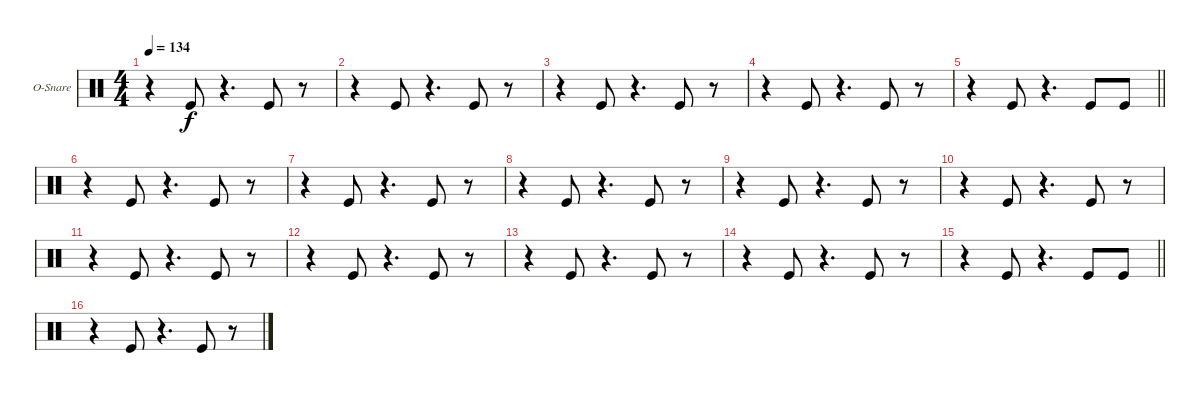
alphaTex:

\bracketExtendMode groupsimilarinstruments
\firstSystemTrackNameOrientation horizontal
\otherSystemsTrackNameOrientation horizontal
\track ("Open Snare" "O-Snare") {instrument percussion}
\staff {score}
\articulation defaults
\ts (4 4)
\scale
0.245232
\tempo 134
\accidentals auto
\clef neutral
\ottava regular
\simile none
\scale
0.25
\ks c
r.4{dy f} "Kick (hit)".8 r.4{d} "Kick (hit)".8 r.8 |
\scale
0.254768
\scale
0.25 r.4 "Kick (hit)".8 r.4{d} "Kick (hit)".8 r.8 |
\scale
0.245232
\scale
0.25 r.4 "Kick (hit)".8 r.4{d} "Kick (hit)".8 r.8 |
\scale
0.254768
\scale
0.25 r.4 "Kick (hit)".8 r.4{d} "Kick (hit)".8 r.8 |
\scale
0.223881
\scale
0.25
\barLineRight lightlight
r.4 "Kick (hit)".8 r.4{d} "Kick (hit)".8 "Kick (hit)".8 |
\scale
0.320896
\scale
0.25 r.4 "Kick (hit)".8 r.4{d} "Kick (hit)".8 r.8 |
\scale
0.236318
\scale
0.25 r.4 "Kick (hit)".8 r.4{d} "Kick (hit)".8 r.8 |
\scale
0.218905
\scale
0.25 r.4 "Kick (hit)".8 r.4{d} "Kick (hit)".8 r.8 |
\scale
0.327168
\scale
0.25 r.4 "Kick (hit)".8 r.4{d} "Kick (hit)".8 r.8 |
\scale
0.242775
\scale
0.25 r.4 "Kick (hit)".8 r.4{d} "Kick (hit)".8 r.8 |
\scale
0.22659
\scale
0.25 r.4 "Kick (hit)".8 r.4{d} "Kick (hit)".8 r.8 |
\scale
0.203468
\scale
0.25 r.4 "Kick (hit)".8 r.4{d} "Kick (hit)".8 r.8 |
\scale
0.30167
\scale
0.25 r.4 "Kick (hit)".8 r.4{d} "Kick (hit)".8 r.8 |
\scale
0.30167
\scale
0.25 r.4 "Kick (hit)".8 r.4{d} "Kick (hit)".8 r.8 |
\scale
0.201461
\scale
0.25
\barLineRight lightlight
r.4 "Kick (hit)".8 r.4{d} "Kick (hit)".8 "Kick (hit)".8 |
\scale
0.195198
\scale
0.25 r.4 "Kick (hit)".8 r.4{d} "Kick (hit)".8 r.8
